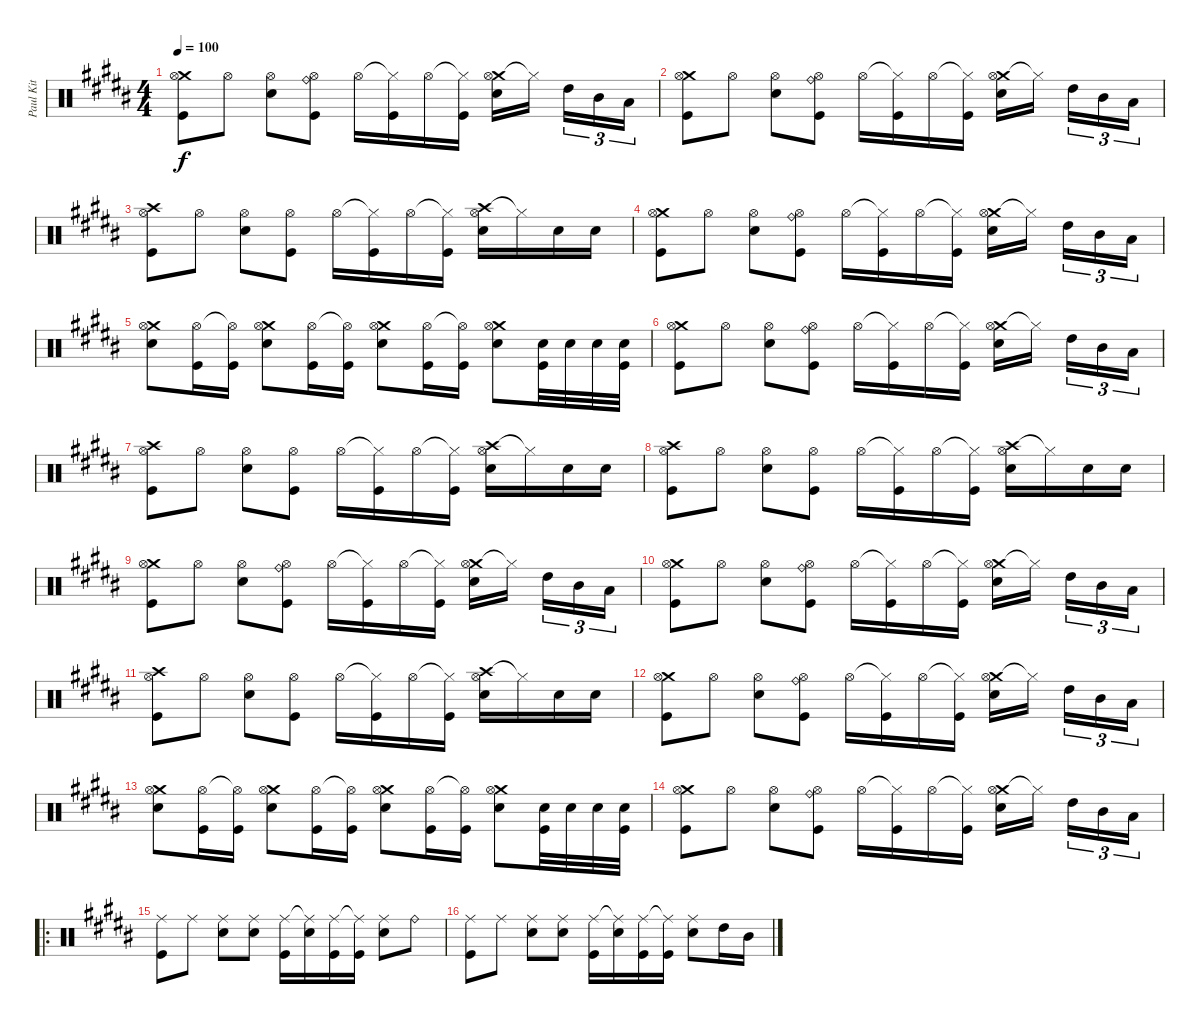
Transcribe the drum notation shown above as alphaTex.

\track ("Paul Kit" "Paul Kit") {instrument percussion}
\staff {score}
\articulation defaults
\ts (4 4)
\tempo 100
\clef neutral
\ks b
("Crash medium (hit)" "Hi-Hat (open)" "Kick (hit)").8{dy f} "Hi-Hat (open)".8 ("Hi-Hat (open)" "Snare (hit) 2").8 ("Ride (bell)" "Hi-Hat (open)" "Kick (hit)").8 "Hi-Hat (open)".16 ("Hi-Hat (closed)"{t} "Kick (hit)").16 "Hi-Hat (open)".16 ("Hi-Hat (closed)"{t} "Kick (hit)").16 ("Crash medium (hit)" "Hi-Hat (open)" "Snare (hit) 2").16 "Hi-Hat (closed)"{t}.16 "High Tom (hit)".16{tu (3 2)} "Mid Tom (hit)".16{tu (3 2)} "Low Tom (hit)".16{tu (3 2)} |
("Crash medium (hit)" "Hi-Hat (open)" "Kick (hit)").8 "Hi-Hat (open)".8 ("Hi-Hat (open)" "Snare (hit) 2").8 ("Ride (bell)" "Hi-Hat (open)" "Kick (hit)").8 "Hi-Hat (open)".16 ("Hi-Hat (closed)"{t} "Kick (hit)").16 "Hi-Hat (open)".16 ("Hi-Hat (closed)"{t} "Kick (hit)").16 ("Crash medium (hit)" "Hi-Hat (open)" "Snare (hit) 2").16 "Hi-Hat (closed)"{t}.16 "High Tom (hit)".16{tu (3 2)} "Mid Tom (hit)".16{tu (3 2)} "Low Tom (hit)".16{tu (3 2)} |
("Crash high (hit)" "Hi-Hat (open)" "Kick (hit)").8 "Hi-Hat (open)".8 ("Hi-Hat (open)" "Snare (hit) 2").8 ("Hi-Hat (open)" "Kick (hit)").8 "Hi-Hat (open)".16 ("Hi-Hat (closed)"{t} "Kick (hit)").16 "Hi-Hat (open)".16 ("Hi-Hat (closed)"{t} "Kick (hit)").16 ("Crash high (hit)" "Hi-Hat (open)" "Snare (hit) 2").16 "Hi-Hat (closed)"{t}.16 "Snare (hit) 2".16 "Snare (hit) 2".16 |
("Crash medium (hit)" "Hi-Hat (open)" "Kick (hit)").8 "Hi-Hat (open)".8 ("Hi-Hat (open)" "Snare (hit) 2").8 ("Ride (bell)" "Hi-Hat (open)" "Kick (hit)").8 "Hi-Hat (open)".16 ("Hi-Hat (closed)"{t} "Kick (hit)").16 "Hi-Hat (open)".16 ("Hi-Hat (closed)"{t} "Kick (hit)").16 ("Crash medium (hit)" "Hi-Hat (open)" "Snare (hit) 2").16 "Hi-Hat (closed)"{t}.16 "High Tom (hit)".16{tu (3 2)} "Mid Tom (hit)".16{tu (3 2)} "Low Tom (hit)".16{tu (3 2)} |
("Crash medium (hit)" "Hi-Hat (open)" "Snare (hit) 2").8 ("Hi-Hat (open)" "Kick (hit)").16 ("Hi-Hat (open)"{t} "Kick (hit)").16 ("Crash medium (hit)" "Hi-Hat (open)" "Snare (hit) 2").8 ("Hi-Hat (open)" "Kick (hit)").16 ("Hi-Hat (open)"{t} "Kick (hit)").16 ("Crash medium (hit)" "Hi-Hat (open)" "Snare (hit) 2").8 ("Hi-Hat (open)" "Kick (hit)").16 ("Hi-Hat (open)"{t} "Kick (hit)").16 ("Crash medium (hit)" "Hi-Hat (open)" "Snare (hit) 2").8 ("Snare (hit) 2" "Kick (hit)").32 "Snare (hit) 2".32 "Snare (hit) 2".32 ("Snare (hit) 2" "Kick (hit)").32 |
("Crash medium (hit)" "Hi-Hat (open)" "Kick (hit)").8 "Hi-Hat (open)".8 ("Hi-Hat (open)" "Snare (hit) 2").8 ("Ride (bell)" "Hi-Hat (open)" "Kick (hit)").8 "Hi-Hat (open)".16 ("Hi-Hat (closed)"{t} "Kick (hit)").16 "Hi-Hat (open)".16 ("Hi-Hat (closed)"{t} "Kick (hit)").16 ("Crash medium (hit)" "Hi-Hat (open)" "Snare (hit) 2").16 "Hi-Hat (closed)"{t}.16 "High Tom (hit)".16{tu (3 2)} "Mid Tom (hit)".16{tu (3 2)} "Low Tom (hit)".16{tu (3 2)} |
("Crash high (hit)" "Hi-Hat (open)" "Kick (hit)").8 "Hi-Hat (open)".8 ("Hi-Hat (open)" "Snare (hit) 2").8 ("Hi-Hat (open)" "Kick (hit)").8 "Hi-Hat (open)".16 ("Hi-Hat (closed)"{t} "Kick (hit)").16 "Hi-Hat (open)".16 ("Hi-Hat (closed)"{t} "Kick (hit)").16 ("Crash high (hit)" "Hi-Hat (open)" "Snare (hit) 2").16 "Hi-Hat (closed)"{t}.16 "Snare (hit) 2".16 "Snare (hit) 2".16 |
("Crash high (hit)" "Hi-Hat (open)" "Kick (hit)").8 "Hi-Hat (open)".8 ("Hi-Hat (open)" "Snare (hit) 2").8 ("Hi-Hat (open)" "Kick (hit)").8 "Hi-Hat (open)".16 ("Hi-Hat (closed)"{t} "Kick (hit)").16 "Hi-Hat (open)".16 ("Hi-Hat (closed)"{t} "Kick (hit)").16 ("Crash high (hit)" "Hi-Hat (open)" "Snare (hit) 2").16 "Hi-Hat (closed)"{t}.16 "Snare (hit) 2".16 "Snare (hit) 2".16 |
("Crash medium (hit)" "Hi-Hat (open)" "Kick (hit)").8 "Hi-Hat (open)".8 ("Hi-Hat (open)" "Snare (hit) 2").8 ("Ride (bell)" "Hi-Hat (open)" "Kick (hit)").8 "Hi-Hat (open)".16 ("Hi-Hat (closed)"{t} "Kick (hit)").16 "Hi-Hat (open)".16 ("Hi-Hat (closed)"{t} "Kick (hit)").16 ("Crash medium (hit)" "Hi-Hat (open)" "Snare (hit) 2").16 "Hi-Hat (closed)"{t}.16 "High Tom (hit)".16{tu (3 2)} "Mid Tom (hit)".16{tu (3 2)} "Low Tom (hit)".16{tu (3 2)} |
("Crash medium (hit)" "Hi-Hat (open)" "Kick (hit)").8 "Hi-Hat (open)".8 ("Hi-Hat (open)" "Snare (hit) 2").8 ("Ride (bell)" "Hi-Hat (open)" "Kick (hit)").8 "Hi-Hat (open)".16 ("Hi-Hat (closed)"{t} "Kick (hit)").16 "Hi-Hat (open)".16 ("Hi-Hat (closed)"{t} "Kick (hit)").16 ("Crash medium (hit)" "Hi-Hat (open)" "Snare (hit) 2").16 "Hi-Hat (closed)"{t}.16 "High Tom (hit)".16{tu (3 2)} "Mid Tom (hit)".16{tu (3 2)} "Low Tom (hit)".16{tu (3 2)} |
("Crash high (hit)" "Hi-Hat (open)" "Kick (hit)").8 "Hi-Hat (open)".8 ("Hi-Hat (open)" "Snare (hit) 2").8 ("Hi-Hat (open)" "Kick (hit)").8 "Hi-Hat (open)".16 ("Hi-Hat (closed)"{t} "Kick (hit)").16 "Hi-Hat (open)".16 ("Hi-Hat (closed)"{t} "Kick (hit)").16 ("Crash high (hit)" "Hi-Hat (open)" "Snare (hit) 2").16 "Hi-Hat (closed)"{t}.16 "Snare (hit) 2".16 "Snare (hit) 2".16 |
("Crash medium (hit)" "Hi-Hat (open)" "Kick (hit)").8 "Hi-Hat (open)".8 ("Hi-Hat (open)" "Snare (hit) 2").8 ("Ride (bell)" "Hi-Hat (open)" "Kick (hit)").8 "Hi-Hat (open)".16 ("Hi-Hat (closed)"{t} "Kick (hit)").16 "Hi-Hat (open)".16 ("Hi-Hat (closed)"{t} "Kick (hit)").16 ("Crash medium (hit)" "Hi-Hat (open)" "Snare (hit) 2").16 "Hi-Hat (closed)"{t}.16 "High Tom (hit)".16{tu (3 2)} "Mid Tom (hit)".16{tu (3 2)} "Low Tom (hit)".16{tu (3 2)} |
("Crash medium (hit)" "Hi-Hat (open)" "Snare (hit) 2").8 ("Hi-Hat (open)" "Kick (hit)").16 ("Hi-Hat (open)"{t} "Kick (hit)").16 ("Crash medium (hit)" "Hi-Hat (open)" "Snare (hit) 2").8 ("Hi-Hat (open)" "Kick (hit)").16 ("Hi-Hat (open)"{t} "Kick (hit)").16 ("Crash medium (hit)" "Hi-Hat (open)" "Snare (hit) 2").8 ("Hi-Hat (open)" "Kick (hit)").16 ("Hi-Hat (open)"{t} "Kick (hit)").16 ("Crash medium (hit)" "Hi-Hat (open)" "Snare (hit) 2").8 ("Snare (hit) 2" "Kick (hit)").32 "Snare (hit) 2".32 "Snare (hit) 2".32 ("Snare (hit) 2" "Kick (hit)").32 |
("Crash medium (hit)" "Hi-Hat (open)" "Kick (hit)").8 "Hi-Hat (open)".8 ("Hi-Hat (open)" "Snare (hit) 2").8 ("Ride (bell)" "Hi-Hat (open)" "Kick (hit)").8 "Hi-Hat (open)".16 ("Hi-Hat (closed)"{t} "Kick (hit)").16 "Hi-Hat (open)".16 ("Hi-Hat (closed)"{t} "Kick (hit)").16 ("Crash medium (hit)" "Hi-Hat (open)" "Snare (hit) 2").16 "Hi-Hat (closed)"{t}.16 "High Tom (hit)".16{tu (3 2)} "Mid Tom (hit)".16{tu (3 2)} "Low Tom (hit)".16{tu (3 2)} |
\ro
("Ride (middle)" "Kick (hit)").8 "Ride (middle)".8 ("Ride (middle)" "Snare (hit) 2").8 ("Ride (middle)" "Snare (hit) 2").8 ("Ride (middle)" "Kick (hit)").16 ("Ride (middle)"{t} "Snare (hit) 2").16 ("Ride (middle)" "Kick (hit)").16 ("Ride (middle)"{t} "Kick (hit)").16 ("Ride (middle)" "Snare (hit) 2").8 "Ride (bell)".8 |
("Ride (middle)" "Kick (hit)").8 "Ride (middle)".8 ("Ride (middle)" "Snare (hit) 2").8 ("Ride (middle)" "Snare (hit) 2").8 ("Ride (middle)" "Kick (hit)").16 ("Ride (middle)"{t} "Snare (hit) 2").16 ("Ride (middle)" "Kick (hit)").16 ("Ride (middle)"{t} "Kick (hit)").16 ("Ride (middle)" "Snare (hit) 2").8 "High Tom (hit)".16 "Mid Tom (hit)".16
